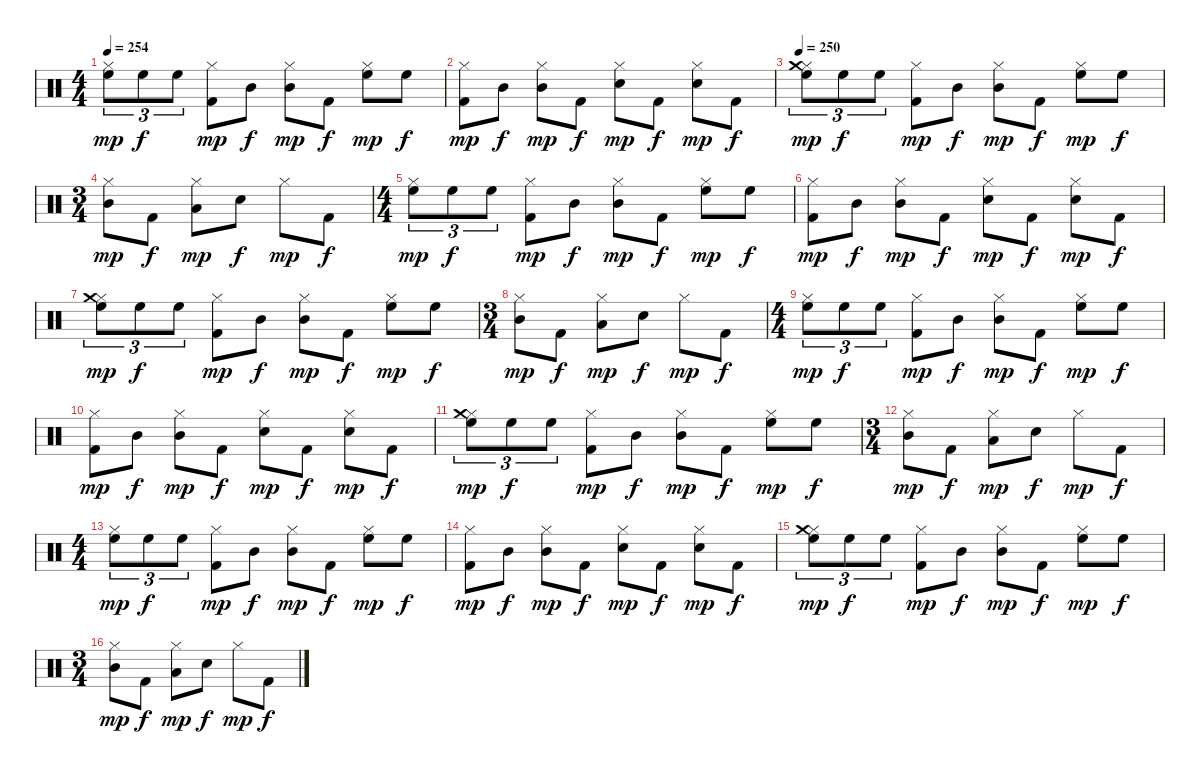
\track "" {instrument percussion}
\staff {score}
\articulation defaults
\ts (4 4)
\tempo 254
\clef neutral
\ks c
("Hi-Hat (closed)" "High Floor Tom (hit)").8{tu (3 2) dy mp balance 14} "High Floor Tom (hit)".8{tu (3 2) dy f} "High Floor Tom (hit)".8{tu (3 2)} ("Hi-Hat (closed)" "Kick (hit) 2").8{dy mp balance 8} "Mid Tom (hit)".8{dy f} ("Hi-Hat (closed)" "Mid Tom (hit)").8{dy mp} "Kick (hit) 2".8{dy f} ("Hi-Hat (closed)" "High Floor Tom (hit)").8{dy mp balance 14} "High Floor Tom (hit)".8{dy f} |
("Hi-Hat (closed)" "Kick (hit) 2").8{dy mp balance 8} "Mid Tom (hit)".8{dy f} ("Hi-Hat (closed)" "Mid Tom (hit)").8{dy mp} "Kick (hit) 2".8{dy f} ("Hi-Hat (closed)" "Electric Snare (hit)").8{dy mp} "Kick (hit) 2".8{dy f} ("Hi-Hat (closed)" "Electric Snare (hit)").8{dy mp} "Kick (hit) 2".8{dy f} |
\tempo 250
("Hi-Hat (closed)" "High Floor Tom (hit)" "Crash medium (hit)").8{tu (3 2) dy mp balance 14} "High Floor Tom (hit)".8{tu (3 2) dy f} "High Floor Tom (hit)".8{tu (3 2)} ("Hi-Hat (closed)" "Kick (hit) 2").8{dy mp balance 8} "Mid Tom (hit)".8{dy f} ("Hi-Hat (closed)" "Mid Tom (hit)").8{dy mp} "Kick (hit) 2".8{dy f} ("Hi-Hat (closed)" "High Floor Tom (hit)").8{dy mp balance 14} "High Floor Tom (hit)".8{dy f} |
\ts (3 4)
("Hi-Hat (closed)" "Mid Tom (hit)").8{dy mp balance 8} "Kick (hit) 2".8{dy f} ("Hi-Hat (closed)" "Low Tom (hit)").8{dy mp balance 2} "Electric Snare (hit)".8{dy f balance 8} "Hi-Hat (closed)".8{dy mp} "Kick (hit) 2".8{dy f} |
\ts (4 4)
("Hi-Hat (closed)" "High Floor Tom (hit)").8{tu (3 2) dy mp balance 14} "High Floor Tom (hit)".8{tu (3 2) dy f} "High Floor Tom (hit)".8{tu (3 2)} ("Hi-Hat (closed)" "Kick (hit) 2").8{dy mp balance 8} "Mid Tom (hit)".8{dy f} ("Hi-Hat (closed)" "Mid Tom (hit)").8{dy mp} "Kick (hit) 2".8{dy f} ("Hi-Hat (closed)" "High Floor Tom (hit)").8{dy mp balance 14} "High Floor Tom (hit)".8{dy f} |
("Hi-Hat (closed)" "Kick (hit) 2").8{dy mp balance 8} "Mid Tom (hit)".8{dy f} ("Hi-Hat (closed)" "Mid Tom (hit)").8{dy mp} "Kick (hit) 2".8{dy f} ("Hi-Hat (closed)" "Electric Snare (hit)").8{dy mp} "Kick (hit) 2".8{dy f} ("Hi-Hat (closed)" "Electric Snare (hit)").8{dy mp} "Kick (hit) 2".8{dy f} |
("Hi-Hat (closed)" "High Floor Tom (hit)" "Crash medium (hit)").8{tu (3 2) dy mp balance 14} "High Floor Tom (hit)".8{tu (3 2) dy f} "High Floor Tom (hit)".8{tu (3 2)} ("Hi-Hat (closed)" "Kick (hit) 2").8{dy mp balance 8} "Mid Tom (hit)".8{dy f} ("Hi-Hat (closed)" "Mid Tom (hit)").8{dy mp} "Kick (hit) 2".8{dy f} ("Hi-Hat (closed)" "High Floor Tom (hit)").8{dy mp balance 14} "High Floor Tom (hit)".8{dy f} |
\ts (3 4)
("Hi-Hat (closed)" "Mid Tom (hit)").8{dy mp balance 8} "Kick (hit) 2".8{dy f} ("Hi-Hat (closed)" "Low Tom (hit)").8{dy mp balance 2} "Electric Snare (hit)".8{dy f balance 8} "Hi-Hat (closed)".8{dy mp} "Kick (hit) 2".8{dy f} |
\ts (4 4)
("Hi-Hat (closed)" "High Floor Tom (hit)").8{tu (3 2) dy mp balance 14} "High Floor Tom (hit)".8{tu (3 2) dy f} "High Floor Tom (hit)".8{tu (3 2)} ("Hi-Hat (closed)" "Kick (hit) 2").8{dy mp balance 8} "Mid Tom (hit)".8{dy f} ("Hi-Hat (closed)" "Mid Tom (hit)").8{dy mp} "Kick (hit) 2".8{dy f} ("Hi-Hat (closed)" "High Floor Tom (hit)").8{dy mp balance 14} "High Floor Tom (hit)".8{dy f} |
("Hi-Hat (closed)" "Kick (hit) 2").8{dy mp balance 8} "Mid Tom (hit)".8{dy f} ("Hi-Hat (closed)" "Mid Tom (hit)").8{dy mp} "Kick (hit) 2".8{dy f} ("Hi-Hat (closed)" "Electric Snare (hit)").8{dy mp} "Kick (hit) 2".8{dy f} ("Hi-Hat (closed)" "Electric Snare (hit)").8{dy mp} "Kick (hit) 2".8{dy f} |
("Hi-Hat (closed)" "High Floor Tom (hit)" "Crash medium (hit)").8{tu (3 2) dy mp balance 14} "High Floor Tom (hit)".8{tu (3 2) dy f} "High Floor Tom (hit)".8{tu (3 2)} ("Hi-Hat (closed)" "Kick (hit) 2").8{dy mp balance 8} "Mid Tom (hit)".8{dy f} ("Hi-Hat (closed)" "Mid Tom (hit)").8{dy mp} "Kick (hit) 2".8{dy f} ("Hi-Hat (closed)" "High Floor Tom (hit)").8{dy mp balance 14} "High Floor Tom (hit)".8{dy f} |
\ts (3 4)
("Hi-Hat (closed)" "Mid Tom (hit)").8{dy mp balance 8} "Kick (hit) 2".8{dy f} ("Hi-Hat (closed)" "Low Tom (hit)").8{dy mp balance 2} "Electric Snare (hit)".8{dy f balance 8} "Hi-Hat (closed)".8{dy mp} "Kick (hit) 2".8{dy f} |
\ts (4 4)
("Hi-Hat (closed)" "High Floor Tom (hit)").8{tu (3 2) dy mp balance 14} "High Floor Tom (hit)".8{tu (3 2) dy f} "High Floor Tom (hit)".8{tu (3 2)} ("Hi-Hat (closed)" "Kick (hit) 2").8{dy mp balance 8} "Mid Tom (hit)".8{dy f} ("Hi-Hat (closed)" "Mid Tom (hit)").8{dy mp} "Kick (hit) 2".8{dy f} ("Hi-Hat (closed)" "High Floor Tom (hit)").8{dy mp balance 14} "High Floor Tom (hit)".8{dy f} |
("Hi-Hat (closed)" "Kick (hit) 2").8{dy mp balance 8} "Mid Tom (hit)".8{dy f} ("Hi-Hat (closed)" "Mid Tom (hit)").8{dy mp} "Kick (hit) 2".8{dy f} ("Hi-Hat (closed)" "Electric Snare (hit)").8{dy mp} "Kick (hit) 2".8{dy f} ("Hi-Hat (closed)" "Electric Snare (hit)").8{dy mp} "Kick (hit) 2".8{dy f} |
("Hi-Hat (closed)" "High Floor Tom (hit)" "Crash medium (hit)").8{tu (3 2) dy mp balance 14} "High Floor Tom (hit)".8{tu (3 2) dy f} "High Floor Tom (hit)".8{tu (3 2)} ("Hi-Hat (closed)" "Kick (hit) 2").8{dy mp balance 8} "Mid Tom (hit)".8{dy f} ("Hi-Hat (closed)" "Mid Tom (hit)").8{dy mp} "Kick (hit) 2".8{dy f} ("Hi-Hat (closed)" "High Floor Tom (hit)").8{dy mp balance 14} "High Floor Tom (hit)".8{dy f} |
\ts (3 4)
("Hi-Hat (closed)" "Mid Tom (hit)").8{dy mp balance 8} "Kick (hit) 2".8{dy f} ("Hi-Hat (closed)" "Low Tom (hit)").8{dy mp balance 2} "Electric Snare (hit)".8{dy f balance 8} "Hi-Hat (closed)".8{dy mp} "Kick (hit) 2".8{dy f}
